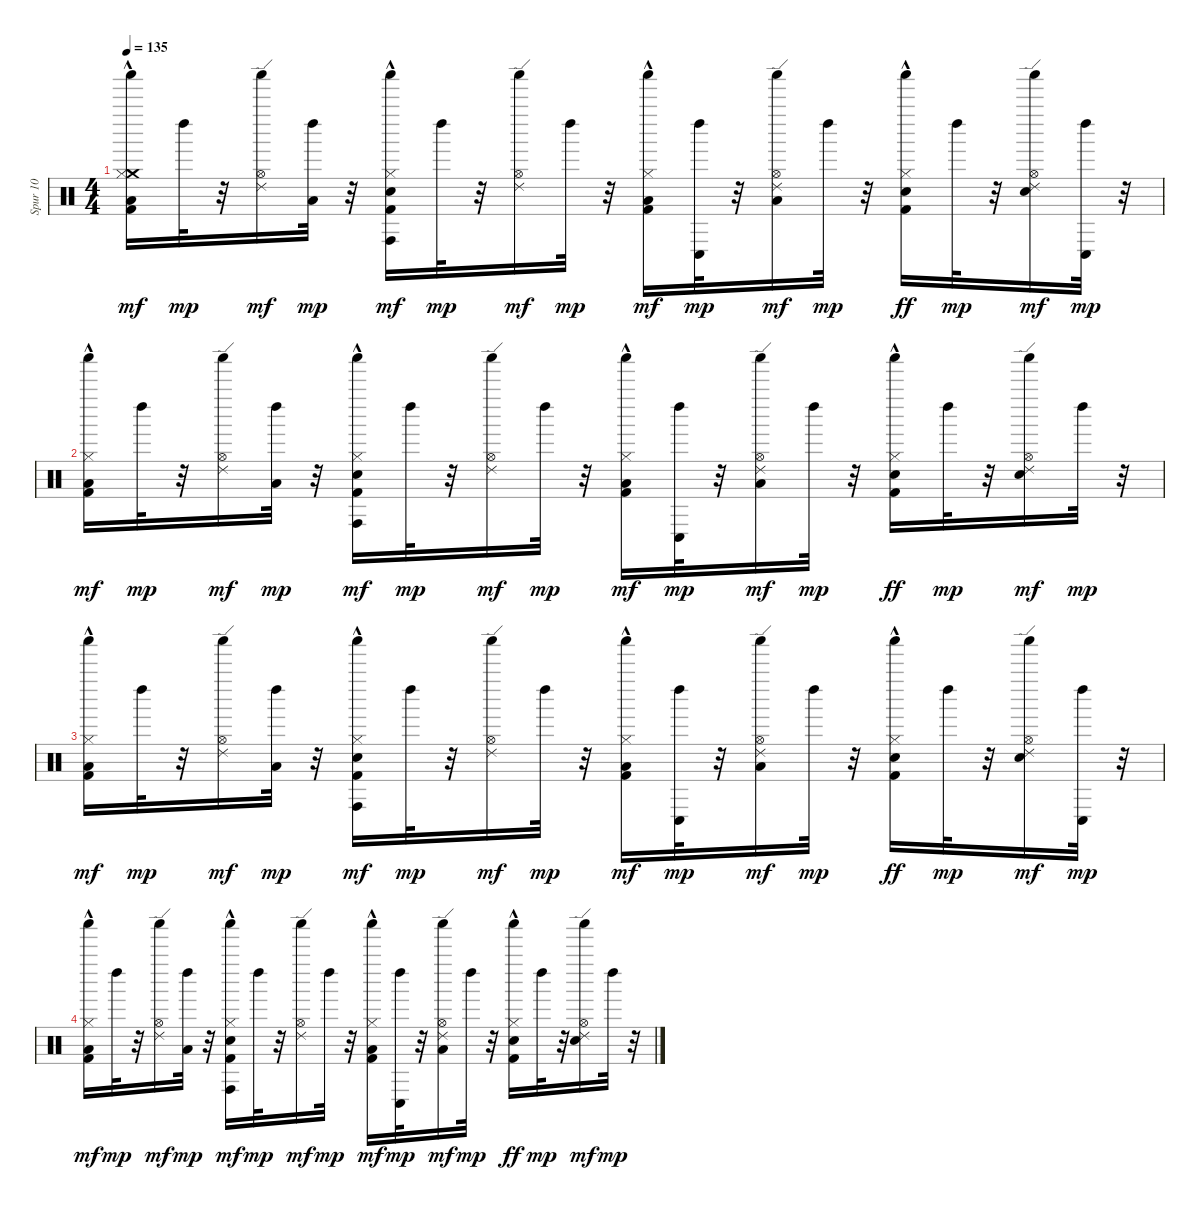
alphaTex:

\track ("Spur 10" "Spur 10") {instrument percussion}
\staff {score}
\articulation defaults
\ts (4 4)
\tempo 135
\clef neutral
\ks c
("Kick (hit) 2" "Low Tom (hit)" "Crash medium (hit)" "Shaker (hit)" "Hi-Hat (closed)"{hac}).16{dy mf} "Left Maraca (hit)".32{dy mp} r.32 ("Shaker (hit)" "Hi-Hat (open)" "Ride (edge) 2").16{dy mf} ("Low Tom (hit)" "Left Maraca (hit)").32{dy mp} r.32 ("Kick (hit) 2" "Conga high (hit)" "Hand Clap (hit)" "Hi-Hat (closed)"{hac} "Shaker (hit)").16{dy mf} "Left Maraca (hit)".32{dy mp} r.32 ("Hi-Hat (open)" "Shaker (hit)" "Ride (edge) 2").16{dy mf} "Left Maraca (hit)".32{dy mp} r.32 ("Kick (hit) 2" "Low Tom (hit)" "Hi-Hat (closed)"{hac} "Shaker (hit)").16{dy mf} ("Conga low (hit)" "Left Maraca (hit)").32{dy mp} r.32 ("Low Tom (hit)" "Hi-Hat (open)" "Shaker (hit)" "Ride (edge) 2").16{dy mf} "Left Maraca (hit)".32{dy mp} r.32 ("Kick (hit) 2" "Hand Clap (hit)" "Hi-Hat (closed)"{hac} "Shaker (hit)").16{dy ff} "Left Maraca (hit)".32{dy mp} r.32 ("Hand Clap (hit)" "Hi-Hat (open)" "Shaker (hit)" "Ride (edge) 2").16{dy mf} ("Conga low (hit)" "Left Maraca (hit)").32{dy mp} r.32 |
("Kick (hit) 2" "Low Tom (hit)" "Shaker (hit)" "Hi-Hat (closed)"{hac}).16{dy mf} "Left Maraca (hit)".32{dy mp} r.32 ("Shaker (hit)" "Hi-Hat (open)" "Ride (edge) 2").16{dy mf} ("Low Tom (hit)" "Left Maraca (hit)").32{dy mp} r.32 ("Kick (hit) 2" "Conga high (hit)" "Hand Clap (hit)" "Hi-Hat (closed)"{hac} "Shaker (hit)").16{dy mf} "Left Maraca (hit)".32{dy mp} r.32 ("Hi-Hat (open)" "Shaker (hit)" "Ride (edge) 2").16{dy mf} "Left Maraca (hit)".32{dy mp} r.32 ("Kick (hit) 2" "Low Tom (hit)" "Hi-Hat (closed)"{hac} "Shaker (hit)").16{dy mf} ("Conga low (hit)" "Left Maraca (hit)").32{dy mp} r.32 ("Low Tom (hit)" "Hi-Hat (open)" "Shaker (hit)" "Ride (edge) 2").16{dy mf} "Left Maraca (hit)".32{dy mp} r.32 ("Kick (hit) 2" "Hand Clap (hit)" "Hi-Hat (closed)"{hac} "Shaker (hit)").16{dy ff} "Left Maraca (hit)".32{dy mp} r.32 ("Hand Clap (hit)" "Hi-Hat (open)" "Shaker (hit)" "Ride (edge) 2").16{dy mf} "Left Maraca (hit)".32{dy mp} r.32 |
("Kick (hit) 2" "Low Tom (hit)" "Shaker (hit)" "Hi-Hat (closed)"{hac}).16{dy mf} "Left Maraca (hit)".32{dy mp} r.32 ("Shaker (hit)" "Hi-Hat (open)" "Ride (edge) 2").16{dy mf} ("Low Tom (hit)" "Left Maraca (hit)").32{dy mp} r.32 ("Kick (hit) 2" "Conga high (hit)" "Hand Clap (hit)" "Hi-Hat (closed)"{hac} "Shaker (hit)").16{dy mf} "Left Maraca (hit)".32{dy mp} r.32 ("Hi-Hat (open)" "Shaker (hit)" "Ride (edge) 2").16{dy mf} "Left Maraca (hit)".32{dy mp} r.32 ("Kick (hit) 2" "Low Tom (hit)" "Hi-Hat (closed)"{hac} "Shaker (hit)").16{dy mf} ("Conga low (hit)" "Left Maraca (hit)").32{dy mp} r.32 ("Low Tom (hit)" "Hi-Hat (open)" "Shaker (hit)" "Ride (edge) 2").16{dy mf} "Left Maraca (hit)".32{dy mp} r.32 ("Kick (hit) 2" "Hand Clap (hit)" "Hi-Hat (closed)"{hac} "Shaker (hit)").16{dy ff} "Left Maraca (hit)".32{dy mp} r.32 ("Hand Clap (hit)" "Hi-Hat (open)" "Shaker (hit)" "Ride (edge) 2").16{dy mf} ("Conga low (hit)" "Left Maraca (hit)").32{dy mp} r.32 |
("Kick (hit) 2" "Low Tom (hit)" "Shaker (hit)" "Hi-Hat (closed)"{hac}).16{dy mf} "Left Maraca (hit)".32{dy mp} r.32 ("Shaker (hit)" "Hi-Hat (open)" "Ride (edge) 2").16{dy mf} ("Low Tom (hit)" "Left Maraca (hit)").32{dy mp} r.32 ("Kick (hit) 2" "Conga high (hit)" "Hand Clap (hit)" "Hi-Hat (closed)"{hac} "Shaker (hit)").16{dy mf} "Left Maraca (hit)".32{dy mp} r.32 ("Hi-Hat (open)" "Shaker (hit)" "Ride (edge) 2").16{dy mf} "Left Maraca (hit)".32{dy mp} r.32 ("Kick (hit) 2" "Low Tom (hit)" "Hi-Hat (closed)"{hac} "Shaker (hit)").16{dy mf} ("Conga low (hit)" "Left Maraca (hit)").32{dy mp} r.32 ("Low Tom (hit)" "Hi-Hat (open)" "Shaker (hit)" "Ride (edge) 2").16{dy mf} "Left Maraca (hit)".32{dy mp} r.32 ("Kick (hit) 2" "Hand Clap (hit)" "Hi-Hat (closed)"{hac} "Shaker (hit)").16{dy ff} "Left Maraca (hit)".32{dy mp} r.32 ("Hand Clap (hit)" "Hi-Hat (open)" "Shaker (hit)" "Ride (edge) 2").16{dy mf} "Left Maraca (hit)".32{dy mp} r.32
